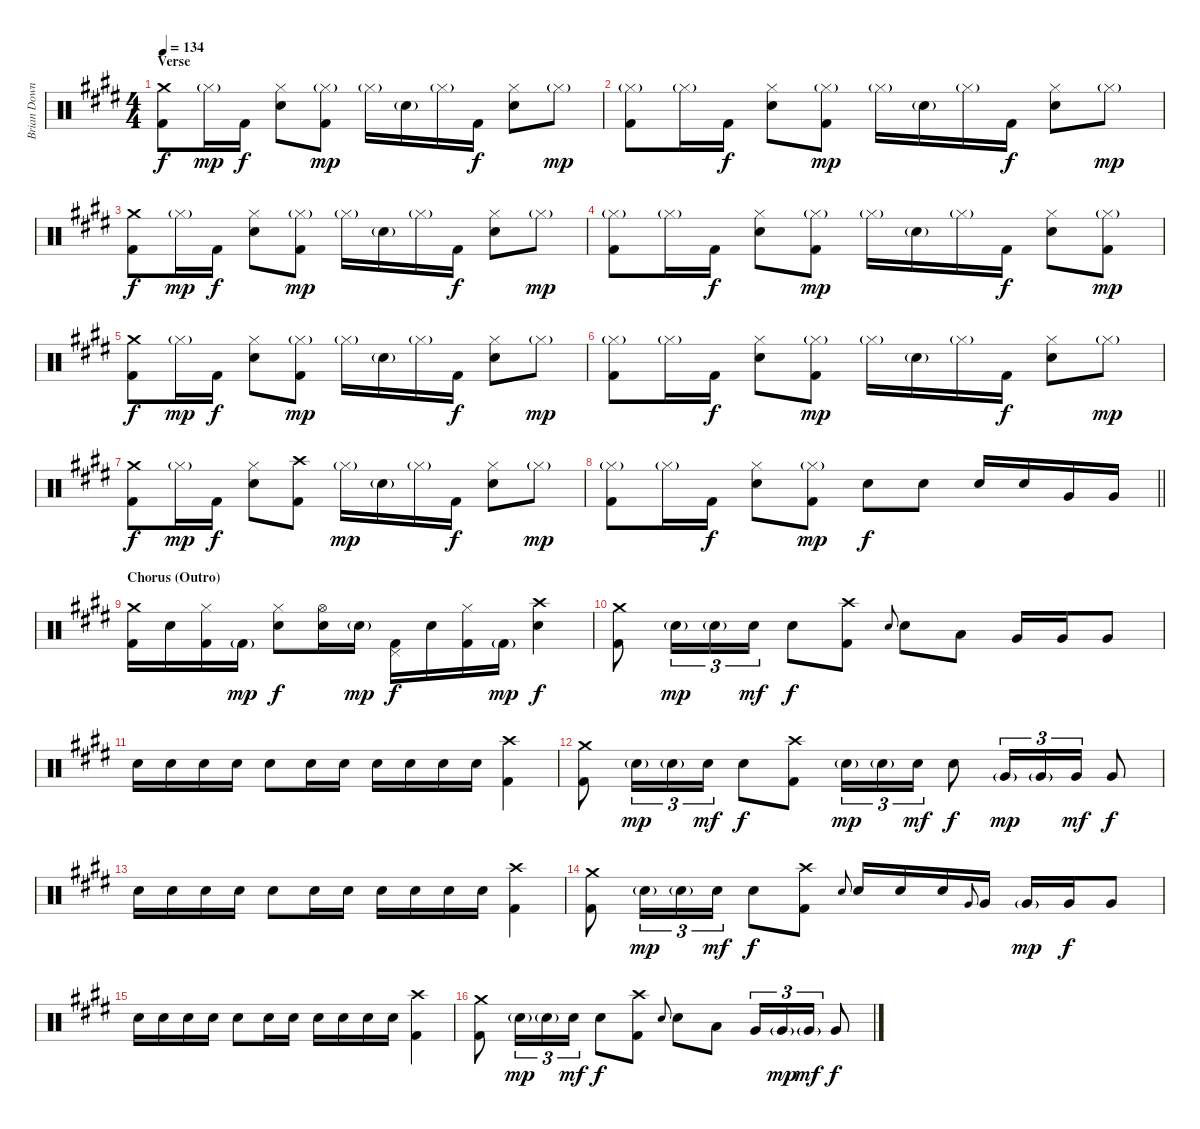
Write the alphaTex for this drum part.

\track ("Brian Downey" "Brian Down") {instrument percussion}
\staff {score}
\articulation defaults
\ts (4 4)
\section ("" "Verse")
\tempo 134
\clef neutral
\ks e
("Crash medium (hit)" "Kick (hit) 2").8{dy f} "Hi-Hat (closed)"{g}.16{dy mp} "Kick (hit) 2".16{dy f} ("Hi-Hat (closed)" "Electric Snare (hit)").8 ("Hi-Hat (closed)"{g} "Kick (hit) 2").8{dy mp} "Hi-Hat (closed)"{g}.16 "Electric Snare (hit)"{g}.16 "Hi-Hat (closed)"{g}.16 "Kick (hit) 2".16{dy f} ("Hi-Hat (closed)" "Electric Snare (hit)").8 "Hi-Hat (closed)"{g}.8{dy mp} |
("Hi-Hat (closed)"{g} "Kick (hit) 2").8 "Hi-Hat (closed)"{g}.16 "Kick (hit) 2".16{dy f} ("Hi-Hat (closed)" "Electric Snare (hit)").8 ("Hi-Hat (closed)"{g} "Kick (hit) 2").8{dy mp} "Hi-Hat (closed)"{g}.16 "Electric Snare (hit)"{g}.16 "Hi-Hat (closed)"{g}.16 "Kick (hit) 2".16{dy f} ("Hi-Hat (closed)" "Electric Snare (hit)").8 "Hi-Hat (closed)"{g}.8{dy mp} |
("Crash medium (hit)" "Kick (hit) 2").8{dy f} "Hi-Hat (closed)"{g}.16{dy mp} "Kick (hit) 2".16{dy f} ("Hi-Hat (closed)" "Electric Snare (hit)").8 ("Hi-Hat (closed)"{g} "Kick (hit) 2").8{dy mp} "Hi-Hat (closed)"{g}.16 "Electric Snare (hit)"{g}.16 "Hi-Hat (closed)"{g}.16 "Kick (hit) 2".16{dy f} ("Hi-Hat (closed)" "Electric Snare (hit)").8 "Hi-Hat (closed)"{g}.8{dy mp} |
("Hi-Hat (closed)"{g} "Kick (hit) 2").8 "Hi-Hat (closed)"{g}.16 "Kick (hit) 2".16{dy f} ("Hi-Hat (closed)" "Electric Snare (hit)").8 ("Hi-Hat (closed)"{g} "Kick (hit) 2").8{dy mp} "Hi-Hat (closed)"{g}.16 "Electric Snare (hit)"{g}.16 "Hi-Hat (closed)"{g}.16 "Kick (hit) 2".16{dy f} ("Hi-Hat (closed)" "Electric Snare (hit)").8 ("Hi-Hat (closed)"{g} "Kick (hit) 2").8{dy mp} |
("Crash medium (hit)" "Kick (hit) 2").8{dy f} "Hi-Hat (closed)"{g}.16{dy mp} "Kick (hit) 2".16{dy f} ("Hi-Hat (closed)" "Electric Snare (hit)").8 ("Hi-Hat (closed)"{g} "Kick (hit) 2").8{dy mp} "Hi-Hat (closed)"{g}.16 "Electric Snare (hit)"{g}.16 "Hi-Hat (closed)"{g}.16 "Kick (hit) 2".16{dy f} ("Hi-Hat (closed)" "Electric Snare (hit)").8 "Hi-Hat (closed)"{g}.8{dy mp} |
("Hi-Hat (closed)"{g} "Kick (hit) 2").8 "Hi-Hat (closed)"{g}.16 "Kick (hit) 2".16{dy f} ("Hi-Hat (closed)" "Electric Snare (hit)").8 ("Hi-Hat (closed)"{g} "Kick (hit) 2").8{dy mp} "Hi-Hat (closed)"{g}.16 "Electric Snare (hit)"{g}.16 "Hi-Hat (closed)"{g}.16 "Kick (hit) 2".16{dy f} ("Hi-Hat (closed)" "Electric Snare (hit)").8 "Hi-Hat (closed)"{g}.8{dy mp} |
("Crash medium (hit)" "Kick (hit) 2").8{dy f} "Hi-Hat (closed)"{g}.16{dy mp} "Kick (hit) 2".16{dy f} ("Hi-Hat (closed)" "Electric Snare (hit)").8 ("Crash high (hit)" "Kick (hit) 2").8 "Hi-Hat (closed)"{g}.16{dy mp} "Electric Snare (hit)"{g}.16 "Hi-Hat (closed)"{g}.16 "Kick (hit) 2".16{dy f} ("Hi-Hat (closed)" "Electric Snare (hit)").8 "Hi-Hat (closed)"{g}.8{dy mp} |
\barLineRight lightlight
("Hi-Hat (closed)"{g} "Kick (hit) 2").8 "Hi-Hat (closed)"{g}.16 "Kick (hit) 2".16{dy f} ("Hi-Hat (closed)" "Electric Snare (hit)").8 ("Hi-Hat (closed)"{g} "Kick (hit) 2").8{dy mp} "Electric Snare (hit)".8{dy f} "Electric Snare (hit)".8 "Electric Snare (hit)".16 "Electric Snare (hit)".16 "Very Low Tom (hit)".16 "Very Low Tom (hit)".16 |
\section ("" "Chorus (Outro)")
("Crash medium (hit)" "Kick (hit) 2").16 "Electric Snare (hit)".16 ("Hi-Hat (closed)" "Kick (hit) 2").16 "Kick (hit) 2"{g}.16{dy mp} ("Hi-Hat (closed)" "Electric Snare (hit)").8{dy f} ("Hi-Hat (open)" "Electric Snare (hit)").16 "Electric Snare (hit)"{g}.16{dy mp} ("Pedal Hi-Hat (hit)" "Kick (hit) 2").16{dy f} "Electric Snare (hit)".16 ("Hi-Hat (closed)" "Kick (hit) 2").16 "Kick (hit) 2"{g}.16{dy mp} ("Crash high (hit)" "Electric Snare (hit)").4{dy f} |
("Crash medium (hit)" "Kick (hit) 2").8 "Electric Snare (hit)"{g}.16{tu (3 2) dy mp} "Electric Snare (hit)"{g}.16{tu (3 2)} "Electric Snare (hit)".16{tu (3 2) dy mf} "Electric Snare (hit)".8{dy f} ("Crash high (hit)" "Kick (hit) 2").8 "Electric Snare (hit)".8{gr onbeat} "Electric Snare (hit)".8 "Low Tom (hit)".8 "Very Low Tom (hit)".16 "Very Low Tom (hit)".16 "Very Low Tom (hit)".8 |
"Electric Snare (hit)".16 "Electric Snare (hit)".16 "Electric Snare (hit)".16 "Electric Snare (hit)".16 "Electric Snare (hit)".8 "Electric Snare (hit)".16 "Electric Snare (hit)".16 "Electric Snare (hit)".16 "Electric Snare (hit)".16 "Electric Snare (hit)".16 "Electric Snare (hit)".16 ("Crash high (hit)" "Kick (hit) 2").4 |
("Crash medium (hit)" "Kick (hit) 2").8 "Electric Snare (hit)"{g}.16{tu (3 2) dy mp} "Electric Snare (hit)"{g}.16{tu (3 2)} "Electric Snare (hit)".16{tu (3 2) dy mf} "Electric Snare (hit)".8{dy f} ("Crash high (hit)" "Kick (hit) 2").8 "Electric Snare (hit)"{g}.16{tu (3 2) dy mp} "Electric Snare (hit)"{g}.16{tu (3 2)} "Electric Snare (hit)".16{tu (3 2) dy mf} "Electric Snare (hit)".8{dy f} "Very Low Tom (hit)"{g}.16{tu (3 2) dy mp} "Very Low Tom (hit)"{g}.16{tu (3 2)} "Very Low Tom (hit)".16{tu (3 2) dy mf} "Very Low Tom (hit)".8{dy f} |
"Electric Snare (hit)".16 "Electric Snare (hit)".16 "Electric Snare (hit)".16 "Electric Snare (hit)".16 "Electric Snare (hit)".8 "Electric Snare (hit)".16 "Electric Snare (hit)".16 "Electric Snare (hit)".16 "Electric Snare (hit)".16 "Electric Snare (hit)".16 "Electric Snare (hit)".16 ("Crash high (hit)" "Kick (hit) 2").4 |
("Crash medium (hit)" "Kick (hit) 2").8 "Electric Snare (hit)"{g}.16{tu (3 2) dy mp} "Electric Snare (hit)"{g}.16{tu (3 2)} "Electric Snare (hit)".16{tu (3 2) dy mf} "Electric Snare (hit)".8{dy f} ("Crash high (hit)" "Kick (hit) 2").8 "Electric Snare (hit)".8{gr onbeat} "Electric Snare (hit)".16 "Electric Snare (hit)".16 "Electric Snare (hit)".16 "Very Low Tom (hit)".8{gr onbeat} "Very Low Tom (hit)".16 "Very Low Tom (hit)"{g}.16{dy mp} "Very Low Tom (hit)".16{dy f} "Very Low Tom (hit)".8 |
"Electric Snare (hit)".16 "Electric Snare (hit)".16 "Electric Snare (hit)".16 "Electric Snare (hit)".16 "Electric Snare (hit)".8 "Electric Snare (hit)".16 "Electric Snare (hit)".16 "Electric Snare (hit)".16 "Electric Snare (hit)".16 "Electric Snare (hit)".16 "Electric Snare (hit)".16 ("Crash high (hit)" "Kick (hit) 2").4 |
("Crash medium (hit)" "Kick (hit) 2").8 "Electric Snare (hit)"{g}.16{tu (3 2) dy mp} "Electric Snare (hit)"{g}.16{tu (3 2)} "Electric Snare (hit)".16{tu (3 2) dy mf} "Electric Snare (hit)".8{dy f} ("Crash high (hit)" "Kick (hit) 2").8 "Electric Snare (hit)".8{gr onbeat} "Electric Snare (hit)".8 "Low Tom (hit)".8 "Very Low Tom (hit)".16{tu (3 2)} "Very Low Tom (hit)"{g}.16{tu (3 2) dy mp} "Very Low Tom (hit)"{g}.16{tu (3 2) dy mf} "Very Low Tom (hit)".8{dy f}
